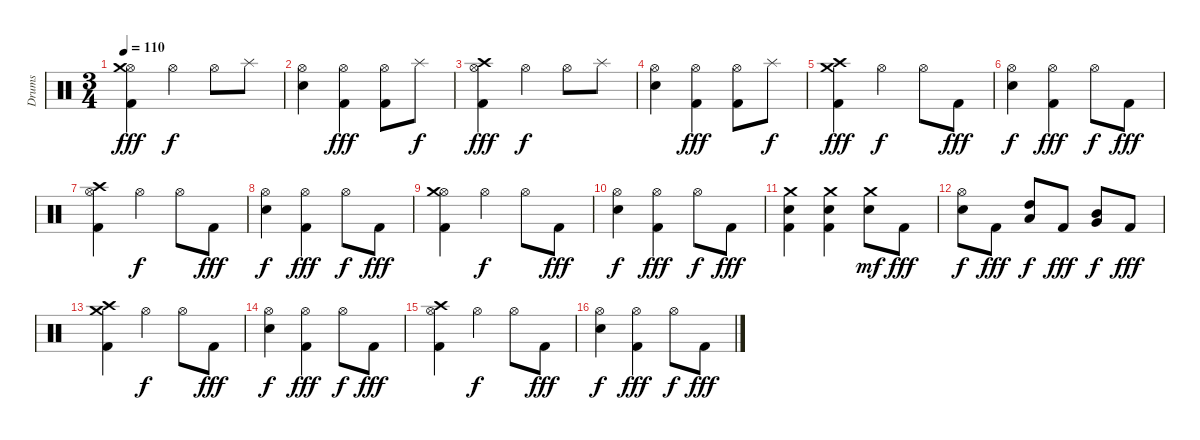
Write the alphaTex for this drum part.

\track ("Drums" "Drums") {instrument percussion}
\staff {score}
\articulation defaults
\ts (3 4)
\tempo 110
\clef neutral
\ks c
("Hi-Hat (open)" "Crash medium (hit)" "Kick (hit) 2").4{dy fff} "Hi-Hat (open)".4{dy f} "Hi-Hat (open)".8 "Splash (hit)".8 |
("Hi-Hat (open)" "Snare (hit) 2").4 ("Hi-Hat (open)" "Kick (hit) 2").4{dy fff} ("Hi-Hat (open)" "Kick (hit) 2").8 "Splash (hit)".8{dy f} |
("Hi-Hat (open)" "Crash high (hit)" "Kick (hit) 2").4{dy fff} "Hi-Hat (open)".4{dy f} "Hi-Hat (open)".8 "Splash (hit)".8 |
("Hi-Hat (open)" "Snare (hit) 2").4 ("Hi-Hat (open)" "Kick (hit) 2").4{dy fff} ("Hi-Hat (open)" "Kick (hit) 2").8 "Splash (hit)".8{dy f} |
("Crash medium (hit)" "Crash high (hit)" "Kick (hit) 2").4{dy fff} "Hi-Hat (open)".4{dy f} "Hi-Hat (open)".8 "Kick (hit) 2".8{dy fff} |
("Hi-Hat (open)" "Snare (hit) 2").4{dy f} ("Hi-Hat (open)" "Kick (hit) 2").4{dy fff} "Hi-Hat (open)".8{dy f} "Kick (hit) 2".8{dy fff} |
("Hi-Hat (open)" "Crash high (hit)" "Kick (hit) 2").4 "Hi-Hat (open)".4{dy f} "Hi-Hat (open)".8 "Kick (hit) 2".8{dy fff} |
("Hi-Hat (open)" "Snare (hit) 2").4{dy f} ("Hi-Hat (open)" "Kick (hit) 2").4{dy fff} "Hi-Hat (open)".8{dy f} "Kick (hit) 2".8{dy fff} |
("Hi-Hat (open)" "Crash medium (hit)" "Kick (hit) 2").4 "Hi-Hat (open)".4{dy f} "Hi-Hat (open)".8 "Kick (hit) 2".8{dy fff} |
("Hi-Hat (open)" "Snare (hit) 2").4{dy f} ("Hi-Hat (open)" "Kick (hit) 2").4{dy fff} "Hi-Hat (open)".8{dy f} "Kick (hit) 2".8{dy fff} |
("Crash medium (hit)" "Snare (hit) 2" "Kick (hit) 2").4 ("Crash medium (hit)" "Snare (hit) 2" "Kick (hit) 2").4 ("Crash medium (hit)" "Snare (hit) 2").8{dy mf} "Kick (hit) 2".8{dy fff} |
("Hi-Hat (open)" "Snare (hit) 2").8{dy f} "Kick (hit) 2".8{dy fff} ("Low Tom (hit)" "High Tom (hit)").8{dy f} "Kick (hit) 2".8{dy fff} ("Very Low Tom (hit)" "Mid Tom (hit)").8{dy f} "Kick (hit) 2".8{dy fff} |
("Crash medium (hit)" "Crash high (hit)" "Kick (hit) 2").4 "Hi-Hat (open)".4{dy f} "Hi-Hat (open)".8 "Kick (hit) 2".8{dy fff} |
("Hi-Hat (open)" "Snare (hit) 2").4{dy f} ("Hi-Hat (open)" "Kick (hit) 2").4{dy fff} "Hi-Hat (open)".8{dy f} "Kick (hit) 2".8{dy fff} |
("Hi-Hat (open)" "Crash high (hit)" "Kick (hit) 2").4 "Hi-Hat (open)".4{dy f} "Hi-Hat (open)".8 "Kick (hit) 2".8{dy fff} |
("Hi-Hat (open)" "Snare (hit) 2").4{dy f} ("Hi-Hat (open)" "Kick (hit) 2").4{dy fff} "Hi-Hat (open)".8{dy f} "Kick (hit) 2".8{dy fff}
